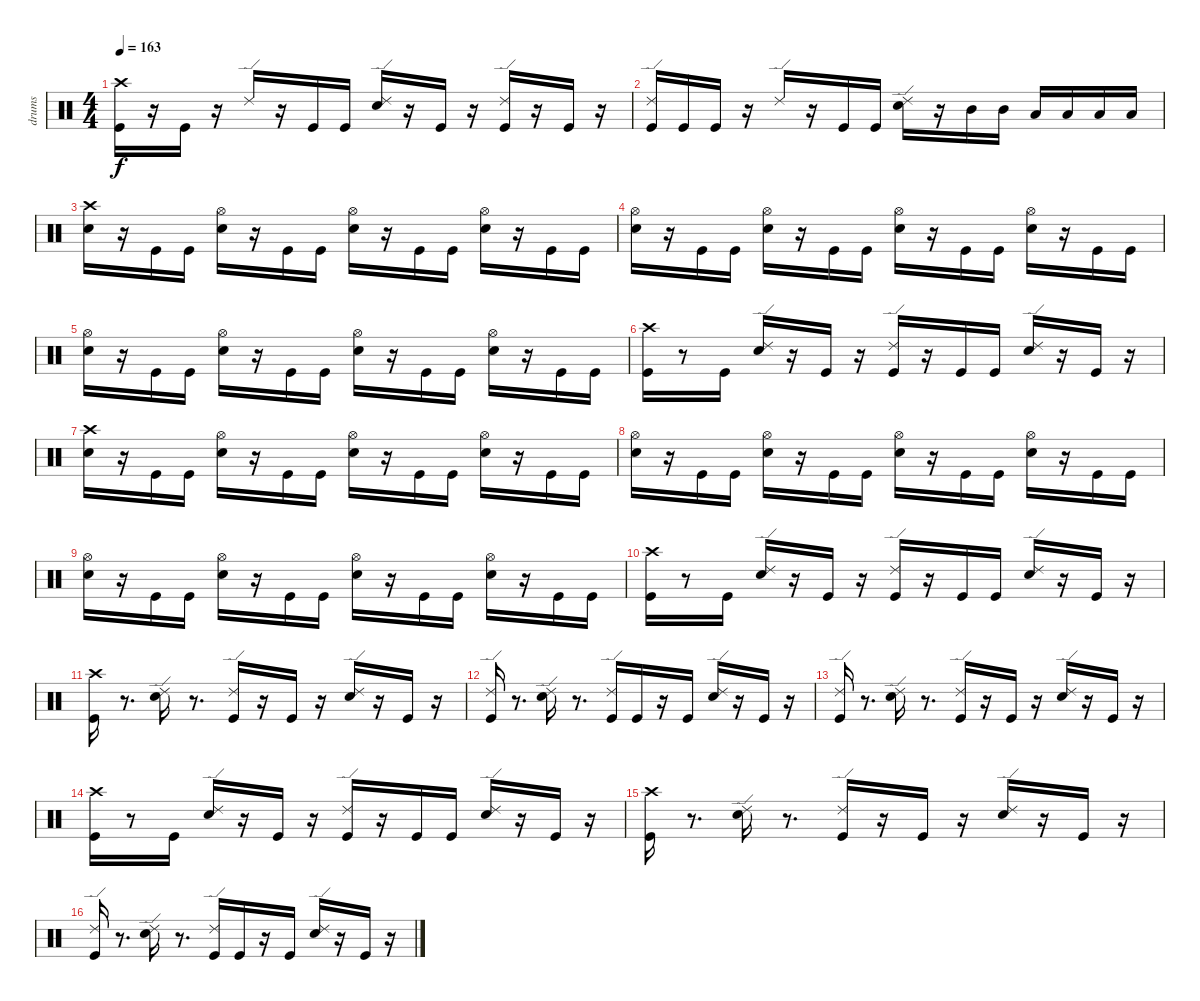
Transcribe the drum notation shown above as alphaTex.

\track ("drums" "drums") {instrument percussion}
\staff {score}
\articulation defaults
\ts (4 4)
\tempo 163
\clef neutral
\ks c
("Crash high (hit)" "Kick (hit)").16{dy f} r.16 "Kick (hit)".16 r.16 "Ride (edge) 2".16 r.16 "Kick (hit)".16 "Kick (hit)".16 ("Ride (edge) 2" "Snare (hit) 2").16 r.16 "Kick (hit)".16 r.16 ("Kick (hit)" "Ride (edge) 2").16 r.16 "Kick (hit)".16 r.16 |
("Ride (edge) 2" "Kick (hit)").16 "Kick (hit)".16 "Kick (hit)".16 r.16 "Ride (edge) 2".16 r.16 "Kick (hit)".16 "Kick (hit)".16 ("Ride (edge) 2" "Snare (hit) 2").16 r.16 "Mid Tom (hit)".16 "Mid Tom (hit)".16 "Low Tom (hit)".16 "Low Tom (hit)".16 "Low Tom (hit)".16 "Low Tom (hit)".16 |
("Crash high (hit)" "Snare (hit) 2").16 r.16 "Kick (hit)".16 "Kick (hit)".16 ("Hi-Hat (open)" "Snare (hit) 2").16 r.16 "Kick (hit)".16 "Kick (hit)".16 ("Hi-Hat (open)" "Snare (hit) 2").16 r.16 "Kick (hit)".16 "Kick (hit)".16 ("Hi-Hat (open)" "Snare (hit) 2").16 r.16 "Kick (hit)".16 "Kick (hit)".16 |
("Hi-Hat (open)" "Snare (hit) 2").16 r.16 "Kick (hit)".16 "Kick (hit)".16 ("Hi-Hat (open)" "Snare (hit) 2").16 r.16 "Kick (hit)".16 "Kick (hit)".16 ("Hi-Hat (open)" "Snare (hit) 2").16 r.16 "Kick (hit)".16 "Kick (hit)".16 ("Hi-Hat (open)" "Snare (hit) 2").16 r.16 "Kick (hit)".16 "Kick (hit)".16 |
("Hi-Hat (open)" "Snare (hit) 2").16 r.16 "Kick (hit)".16 "Kick (hit)".16 ("Hi-Hat (open)" "Snare (hit) 2").16 r.16 "Kick (hit)".16 "Kick (hit)".16 ("Hi-Hat (open)" "Snare (hit) 2").16 r.16 "Kick (hit)".16 "Kick (hit)".16 ("Hi-Hat (open)" "Snare (hit) 2").16 r.16 "Kick (hit)".16 "Kick (hit)".16 |
("Crash high (hit)" "Kick (hit)").16 r.8 "Kick (hit)".16 ("Ride (edge) 2" "Snare (hit) 2").16 r.16 "Kick (hit)".16 r.16 ("Ride (edge) 2" "Kick (hit)").16 r.16 "Kick (hit)".16 "Kick (hit)".16 ("Ride (edge) 2" "Snare (hit) 2").16 r.16 "Kick (hit)".16 r.16 |
("Crash high (hit)" "Snare (hit) 2").16 r.16 "Kick (hit)".16 "Kick (hit)".16 ("Hi-Hat (open)" "Snare (hit) 2").16 r.16 "Kick (hit)".16 "Kick (hit)".16 ("Hi-Hat (open)" "Snare (hit) 2").16 r.16 "Kick (hit)".16 "Kick (hit)".16 ("Hi-Hat (open)" "Snare (hit) 2").16 r.16 "Kick (hit)".16 "Kick (hit)".16 |
("Hi-Hat (open)" "Snare (hit) 2").16 r.16 "Kick (hit)".16 "Kick (hit)".16 ("Hi-Hat (open)" "Snare (hit) 2").16 r.16 "Kick (hit)".16 "Kick (hit)".16 ("Hi-Hat (open)" "Snare (hit) 2").16 r.16 "Kick (hit)".16 "Kick (hit)".16 ("Hi-Hat (open)" "Snare (hit) 2").16 r.16 "Kick (hit)".16 "Kick (hit)".16 |
("Hi-Hat (open)" "Snare (hit) 2").16 r.16 "Kick (hit)".16 "Kick (hit)".16 ("Hi-Hat (open)" "Snare (hit) 2").16 r.16 "Kick (hit)".16 "Kick (hit)".16 ("Hi-Hat (open)" "Snare (hit) 2").16 r.16 "Kick (hit)".16 "Kick (hit)".16 ("Hi-Hat (open)" "Snare (hit) 2").16 r.16 "Kick (hit)".16 "Kick (hit)".16 |
("Crash high (hit)" "Kick (hit)").16 r.8 "Kick (hit)".16 ("Ride (edge) 2" "Snare (hit) 2").16 r.16 "Kick (hit)".16 r.16 ("Ride (edge) 2" "Kick (hit)").16 r.16 "Kick (hit)".16 "Kick (hit)".16 ("Ride (edge) 2" "Snare (hit) 2").16 r.16 "Kick (hit)".16 r.16 |
("Crash high (hit)" "Kick (hit)").16 r.8{d} ("Ride (edge) 2" "Snare (hit) 2").16 r.8{d} ("Ride (edge) 2" "Kick (hit)").16 r.16 "Kick (hit)".16 r.16 ("Ride (edge) 2" "Snare (hit) 2").16 r.16 "Kick (hit)".16 r.16 |
("Ride (edge) 2" "Kick (hit)").16 r.8{d} ("Ride (edge) 2" "Snare (hit) 2").16 r.8{d} ("Ride (edge) 2" "Kick (hit)").16 "Kick (hit)".16 r.16 "Kick (hit)".16 ("Ride (edge) 2" "Snare (hit) 2").16 r.16 "Kick (hit)".16 r.16 |
("Ride (edge) 2" "Kick (hit)").16 r.8{d} ("Ride (edge) 2" "Snare (hit) 2").16 r.8{d} ("Ride (edge) 2" "Kick (hit)").16 r.16 "Kick (hit)".16 r.16 ("Ride (edge) 2" "Snare (hit) 2").16 r.16 "Kick (hit)".16 r.16 |
("Crash high (hit)" "Kick (hit)").16 r.8 "Kick (hit)".16 ("Ride (edge) 2" "Snare (hit) 2").16 r.16 "Kick (hit)".16 r.16 ("Ride (edge) 2" "Kick (hit)").16 r.16 "Kick (hit)".16 "Kick (hit)".16 ("Ride (edge) 2" "Snare (hit) 2").16 r.16 "Kick (hit)".16 r.16 |
("Crash high (hit)" "Kick (hit)").16 r.8{d} ("Ride (edge) 2" "Snare (hit) 2").16 r.8{d} ("Ride (edge) 2" "Kick (hit)").16 r.16 "Kick (hit)".16 r.16 ("Ride (edge) 2" "Snare (hit) 2").16 r.16 "Kick (hit)".16 r.16 |
("Ride (edge) 2" "Kick (hit)").16 r.8{d} ("Ride (edge) 2" "Snare (hit) 2").16 r.8{d} ("Ride (edge) 2" "Kick (hit)").16 "Kick (hit)".16 r.16 "Kick (hit)".16 ("Ride (edge) 2" "Snare (hit) 2").16 r.16 "Kick (hit)".16 r.16
